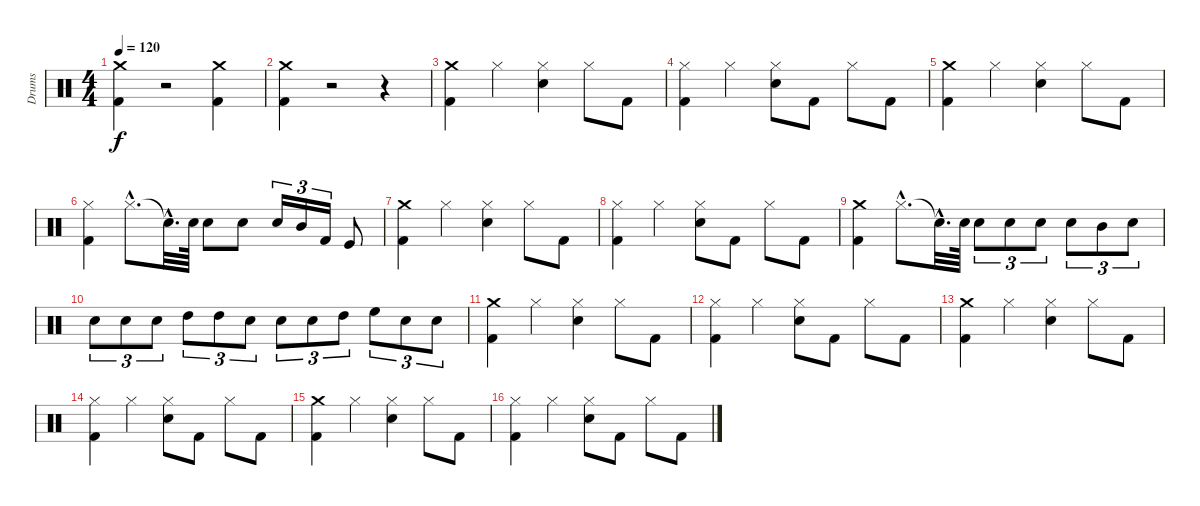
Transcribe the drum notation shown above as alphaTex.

\track ("Drums" "Drums") {instrument percussion}
\staff {score}
\articulation defaults
\ts (4 4)
\tempo 120
\clef neutral
\ks c
("Kick (hit) 2" "Crash medium (hit)").4{dy f} r.2 ("Crash medium (hit)" "Kick (hit) 2").4 |
("Kick (hit) 2" "Crash medium (hit)").4 r.2 r.4 |
("Kick (hit) 2" "Crash medium (hit)").4 "Hi-Hat (closed)".4 ("Snare (hit) 2" "Hi-Hat (closed)").4 "Hi-Hat (closed)".8 "Kick (hit) 2".8 |
("Kick (hit) 2" "Hi-Hat (closed)").4 "Hi-Hat (closed)".4 ("Snare (hit) 2" "Hi-Hat (closed)").8 "Kick (hit) 2".8 "Hi-Hat (closed)".8 "Kick (hit) 2".8 |
("Kick (hit) 2" "Crash medium (hit)").4 "Hi-Hat (closed)".4 ("Snare (hit) 2" "Hi-Hat (closed)").4 "Hi-Hat (closed)".8 "Kick (hit) 2".8 |
("Hi-Hat (closed)" "Kick (hit) 2").4 "Hi-Hat (closed)"{hac}.8{d} "Snare (hit)"{hac t}.32{d} "Snare (hit) 2".64 "Snare (hit) 2".8 "Snare (hit) 2".8 "Snare (hit) 2".16{tu (3 2)} "Mid Tom (hit)".16{tu (3 2)} "Kick (hit) 2".16{tu (3 2)} "Kick (hit)".8 |
("Kick (hit) 2" "Crash medium (hit)").4 "Hi-Hat (closed)".4 ("Snare (hit) 2" "Hi-Hat (closed)").4 "Hi-Hat (closed)".8 "Kick (hit) 2".8 |
("Kick (hit) 2" "Hi-Hat (closed)").4 "Hi-Hat (closed)".4 ("Snare (hit) 2" "Hi-Hat (closed)").8 "Kick (hit) 2".8 "Hi-Hat (closed)".8 "Kick (hit) 2".8 |
("Kick (hit) 2" "Crash medium (hit)").4 "Hi-Hat (closed)"{hac}.8{d} "Snare (hit)"{hac t}.32{d} "Snare (hit) 2".64 "Snare (hit) 2".8{tu (3 2)} "Snare (hit) 2".8{tu (3 2)} "Snare (hit) 2".8{tu (3 2)} "Snare (hit) 2".8{tu (3 2)} "Mid Tom (hit)".8{tu (3 2)} "Snare (hit) 2".8{tu (3 2)} |
"Snare (hit) 2".8{tu (3 2)} "Snare (hit) 2".8{tu (3 2)} "Snare (hit) 2".8{tu (3 2)} "High Tom (hit)".8{tu (3 2)} "High Tom (hit)".8{tu (3 2)} "Snare (hit) 2".8{tu (3 2)} "Snare (hit) 2".8{tu (3 2)} "Snare (hit) 2".8{tu (3 2)} "High Tom (hit)".8{tu (3 2)} "High Floor Tom (hit)".8{tu (3 2)} "Snare (hit) 2".8{tu (3 2)} "Snare (hit) 2".8{tu (3 2)} |
("Kick (hit) 2" "Crash medium (hit)").4 "Hi-Hat (closed)".4 ("Snare (hit) 2" "Hi-Hat (closed)").4 "Hi-Hat (closed)".8 "Kick (hit) 2".8 |
("Hi-Hat (closed)" "Kick (hit) 2").4 "Hi-Hat (closed)".4 ("Snare (hit) 2" "Hi-Hat (closed)").8 "Kick (hit) 2".8 "Hi-Hat (closed)".8 "Kick (hit) 2".8 |
("Kick (hit) 2" "Crash medium (hit)").4 "Hi-Hat (closed)".4 ("Snare (hit) 2" "Hi-Hat (closed)").4 "Hi-Hat (closed)".8 "Kick (hit) 2".8 |
("Hi-Hat (closed)" "Kick (hit) 2").4 "Hi-Hat (closed)".4 ("Snare (hit) 2" "Hi-Hat (closed)").8 "Kick (hit) 2".8 "Hi-Hat (closed)".8 "Kick (hit) 2".8 |
("Kick (hit) 2" "Crash medium (hit)").4 "Hi-Hat (closed)".4 ("Snare (hit) 2" "Hi-Hat (closed)").4 "Hi-Hat (closed)".8 "Kick (hit) 2".8 |
("Hi-Hat (closed)" "Kick (hit) 2").4 "Hi-Hat (closed)".4 ("Snare (hit) 2" "Hi-Hat (closed)").8 "Kick (hit) 2".8 "Hi-Hat (closed)".8 "Kick (hit) 2".8
